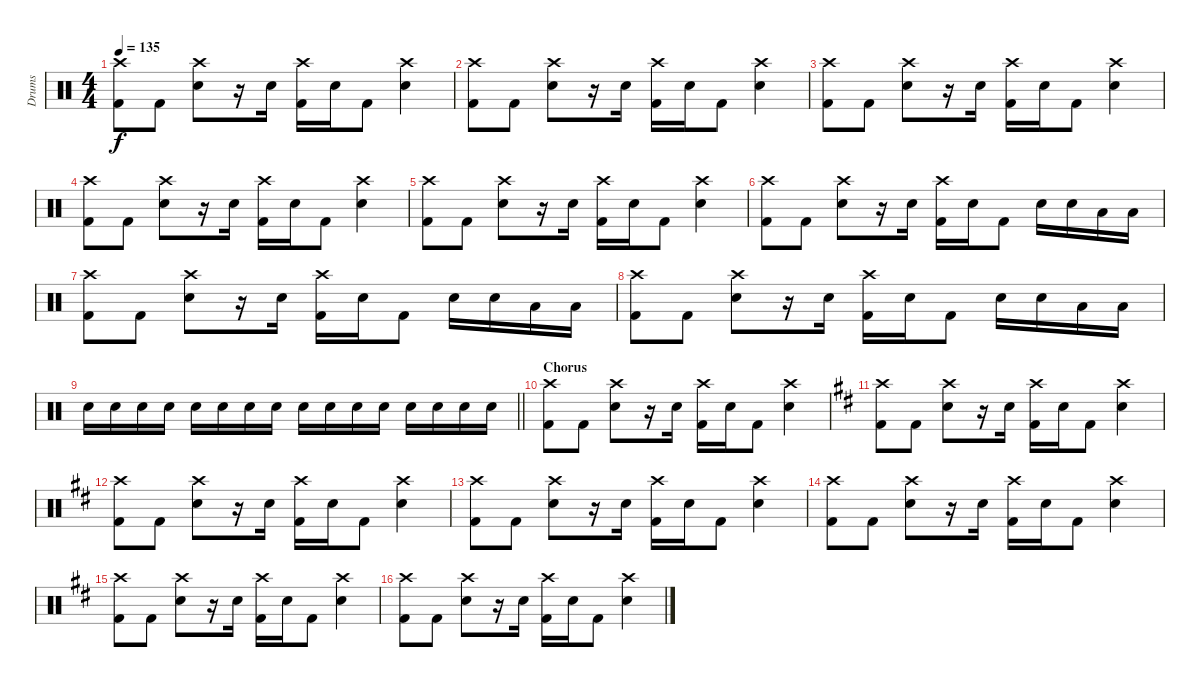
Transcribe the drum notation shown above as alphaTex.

\track ("Drums" "Drums") {instrument percussion}
\staff {score}
\articulation defaults
\ts (4 4)
\tempo 135
\clef neutral
\ks c
("Crash high (hit)" "Kick (hit) 2").8{dy f} "Kick (hit) 2".8 ("Crash high (hit)" "Snare (hit) 2").8 r.16 "Snare (hit) 2".16 ("Crash high (hit)" "Kick (hit) 2").16 "Snare (hit) 2".16 "Kick (hit) 2".8 ("Crash high (hit)" "Snare (hit) 2").4 |
("Crash high (hit)" "Kick (hit) 2").8 "Kick (hit) 2".8 ("Crash high (hit)" "Snare (hit) 2").8 r.16 "Snare (hit) 2".16 ("Crash high (hit)" "Kick (hit) 2").16 "Snare (hit) 2".16 "Kick (hit) 2".8 ("Crash high (hit)" "Snare (hit) 2").4 |
("Crash high (hit)" "Kick (hit) 2").8 "Kick (hit) 2".8 ("Crash high (hit)" "Snare (hit) 2").8 r.16 "Snare (hit) 2".16 ("Crash high (hit)" "Kick (hit) 2").16 "Snare (hit) 2".16 "Kick (hit) 2".8 ("Crash high (hit)" "Snare (hit) 2").4 |
("Crash high (hit)" "Kick (hit) 2").8 "Kick (hit) 2".8 ("Crash high (hit)" "Snare (hit) 2").8 r.16 "Snare (hit) 2".16 ("Crash high (hit)" "Kick (hit) 2").16 "Snare (hit) 2".16 "Kick (hit) 2".8 ("Crash high (hit)" "Snare (hit) 2").4 |
("Crash high (hit)" "Kick (hit) 2").8 "Kick (hit) 2".8 ("Crash high (hit)" "Snare (hit) 2").8 r.16 "Snare (hit) 2".16 ("Crash high (hit)" "Kick (hit) 2").16 "Snare (hit) 2".16 "Kick (hit) 2".8 ("Crash high (hit)" "Snare (hit) 2").4 |
("Crash high (hit)" "Kick (hit) 2").8 "Kick (hit) 2".8 ("Crash high (hit)" "Snare (hit) 2").8 r.16 "Snare (hit) 2".16 ("Crash high (hit)" "Kick (hit) 2").16 "Snare (hit) 2".16 "Kick (hit) 2".8 "Snare (hit) 2".16 "Snare (hit) 2".16 "Low Tom (hit)".16 "Low Tom (hit)".16 |
("Crash high (hit)" "Kick (hit) 2").8 "Kick (hit) 2".8 ("Crash high (hit)" "Snare (hit) 2").8 r.16 "Snare (hit) 2".16 ("Crash high (hit)" "Kick (hit) 2").16 "Snare (hit) 2".16 "Kick (hit) 2".8 "Snare (hit) 2".16 "Snare (hit) 2".16 "Low Tom (hit)".16 "Low Tom (hit)".16 |
("Crash high (hit)" "Kick (hit) 2").8 "Kick (hit) 2".8 ("Crash high (hit)" "Snare (hit) 2").8 r.16 "Snare (hit) 2".16 ("Crash high (hit)" "Kick (hit) 2").16 "Snare (hit) 2".16 "Kick (hit) 2".8 "Snare (hit) 2".16 "Snare (hit) 2".16 "Low Tom (hit)".16 "Low Tom (hit)".16 |
\barLineRight lightlight "Snare (hit) 2".16 "Snare (hit) 2".16 "Snare (hit) 2".16 "Snare (hit) 2".16 "Snare (hit) 2".16 "Snare (hit) 2".16 "Snare (hit) 2".16 "Snare (hit) 2".16 "Snare (hit) 2".16 "Snare (hit) 2".16 "Snare (hit) 2".16 "Snare (hit) 2".16 "Snare (hit) 2".16 "Snare (hit) 2".16 "Snare (hit) 2".16 "Snare (hit) 2".16
|
\section ("" "Chorus")
("Crash high (hit)" "Kick (hit) 2").8 "Kick (hit) 2".8 ("Crash high (hit)" "Snare (hit) 2").8 r.16 "Snare (hit) 2".16 ("Crash high (hit)" "Kick (hit) 2").16 "Snare (hit) 2".16 "Kick (hit) 2".8 ("Crash high (hit)" "Snare (hit) 2").4 |
\ks d
("Crash high (hit)" "Kick (hit) 2").8 "Kick (hit) 2".8 ("Crash high (hit)" "Snare (hit) 2").8 r.16 "Snare (hit) 2".16 ("Crash high (hit)" "Kick (hit) 2").16 "Snare (hit) 2".16 "Kick (hit) 2".8 ("Crash high (hit)" "Snare (hit) 2").4 |
("Crash high (hit)" "Kick (hit) 2").8 "Kick (hit) 2".8 ("Crash high (hit)" "Snare (hit) 2").8 r.16 "Snare (hit) 2".16 ("Crash high (hit)" "Kick (hit) 2").16 "Snare (hit) 2".16 "Kick (hit) 2".8 ("Crash high (hit)" "Snare (hit) 2").4 |
("Crash high (hit)" "Kick (hit) 2").8 "Kick (hit) 2".8 ("Crash high (hit)" "Snare (hit) 2").8 r.16 "Snare (hit) 2".16 ("Crash high (hit)" "Kick (hit) 2").16 "Snare (hit) 2".16 "Kick (hit) 2".8 ("Crash high (hit)" "Snare (hit) 2").4 |
("Crash high (hit)" "Kick (hit) 2").8 "Kick (hit) 2".8 ("Crash high (hit)" "Snare (hit) 2").8 r.16 "Snare (hit) 2".16 ("Crash high (hit)" "Kick (hit) 2").16 "Snare (hit) 2".16 "Kick (hit) 2".8 ("Crash high (hit)" "Snare (hit) 2").4 |
("Crash high (hit)" "Kick (hit) 2").8 "Kick (hit) 2".8 ("Crash high (hit)" "Snare (hit) 2").8 r.16 "Snare (hit) 2".16 ("Crash high (hit)" "Kick (hit) 2").16 "Snare (hit) 2".16 "Kick (hit) 2".8 ("Crash high (hit)" "Snare (hit) 2").4 |
("Crash high (hit)" "Kick (hit) 2").8 "Kick (hit) 2".8 ("Crash high (hit)" "Snare (hit) 2").8 r.16 "Snare (hit) 2".16 ("Crash high (hit)" "Kick (hit) 2").16 "Snare (hit) 2".16 "Kick (hit) 2".8 ("Crash high (hit)" "Snare (hit) 2").4
